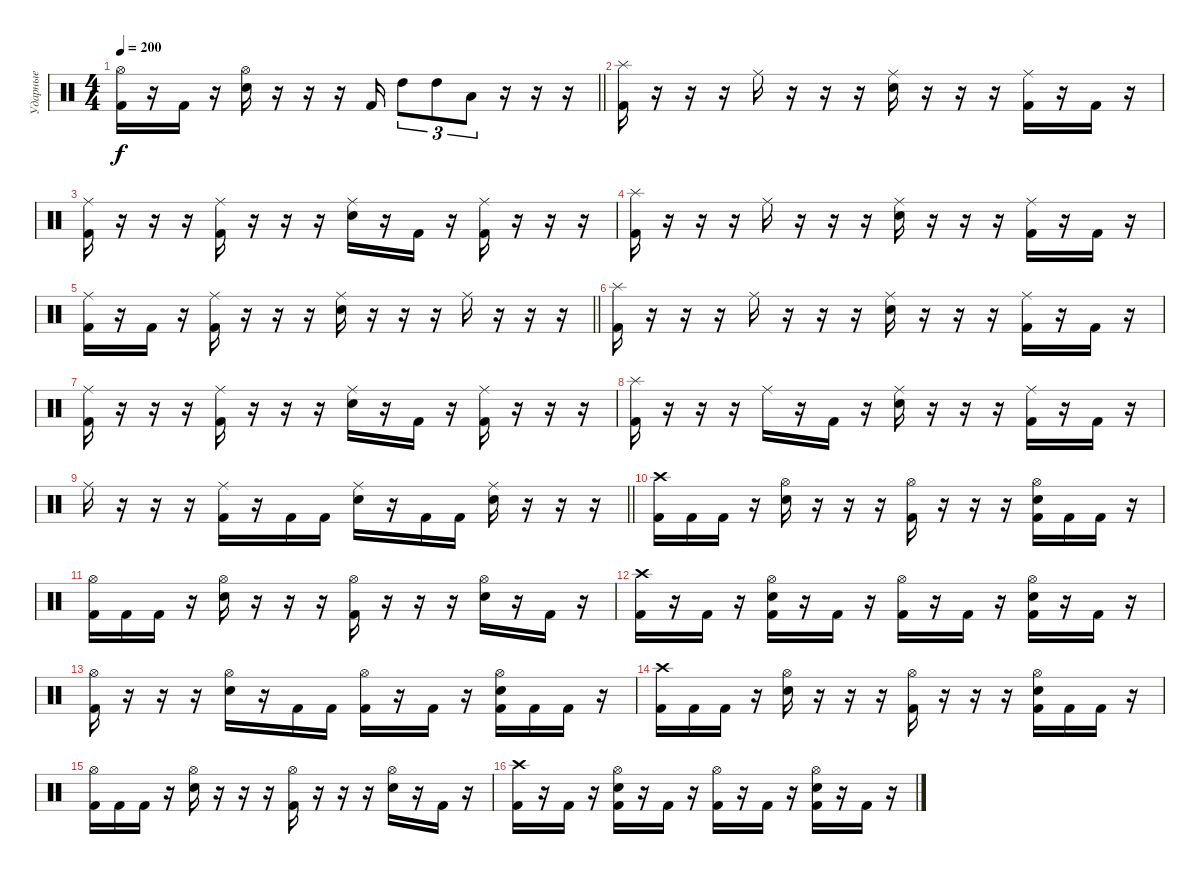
\track ("Ударные" "Ударные") {instrument percussion}
\staff {score}
\articulation defaults
\ts (4 4)
\tempo 200
\clef neutral
\barLineRight lightlight
\ks c
("Hi-Hat (open)" "Kick (hit) 2").16{dy f} r.16 "Kick (hit) 2".16 r.16 ("Hi-Hat (open)" "Electric Snare (hit)").16 r.16 r.16 r.16 "Kick (hit) 2".16 "High Tom (hit)".8{tu (3 2)} "High Tom (hit)".8{tu (3 2)} "Low Tom (hit)".8{tu (3 2)} r.16 r.16 r.16 |
\section ("" "")
("Splash (hit)" "Kick (hit) 2").16 r.16 r.16 r.16 "Ride (middle)".16 r.16 r.16 r.16 ("Ride (middle)" "Electric Snare (hit)").16 r.16 r.16 r.16 ("Ride (middle)" "Kick (hit) 2").16 r.16 "Kick (hit) 2".16 r.16 |
("Ride (middle)" "Kick (hit) 2").16 r.16 r.16 r.16 ("Ride (middle)" "Kick (hit) 2").16 r.16 r.16 r.16 ("Ride (middle)" "Electric Snare (hit)").16 r.16 "Kick (hit) 2".16 r.16 ("Ride (middle)" "Kick (hit) 2").16 r.16 r.16 r.16 |
("Splash (hit)" "Kick (hit) 2").16 r.16 r.16 r.16 "Ride (middle)".16 r.16 r.16 r.16 ("Ride (middle)" "Electric Snare (hit)").16 r.16 r.16 r.16 ("Ride (middle)" "Kick (hit) 2").16 r.16 "Kick (hit) 2".16 r.16 |
\barLineRight lightlight
("Ride (middle)" "Kick (hit) 2").16 r.16 "Kick (hit) 2".16 r.16 ("Ride (middle)" "Kick (hit) 2").16 r.16 r.16 r.16 ("Ride (middle)" "Electric Snare (hit)").16 r.16 r.16 r.16 "Ride (middle)".16 r.16 r.16 r.16 |
("Splash (hit)" "Kick (hit) 2").16 r.16 r.16 r.16 "Ride (middle)".16 r.16 r.16 r.16 ("Ride (middle)" "Electric Snare (hit)").16 r.16 r.16 r.16 ("Ride (middle)" "Kick (hit) 2").16 r.16 "Kick (hit) 2".16 r.16 |
("Ride (middle)" "Kick (hit) 2").16 r.16 r.16 r.16 ("Ride (middle)" "Kick (hit) 2").16 r.16 r.16 r.16 ("Ride (middle)" "Electric Snare (hit)").16 r.16 "Kick (hit) 2".16 r.16 ("Ride (middle)" "Kick (hit) 2").16 r.16 r.16 r.16 |
("Splash (hit)" "Kick (hit) 2").16 r.16 r.16 r.16 "Ride (middle)".16 r.16 "Kick (hit) 2".16 r.16 ("Ride (middle)" "Electric Snare (hit)").16 r.16 r.16 r.16 ("Ride (middle)" "Kick (hit) 2").16 r.16 "Kick (hit) 2".16 r.16 |
\barLineRight lightlight "Ride (middle)".16
r.16 r.16 r.16 ("Ride (middle)" "Kick (hit) 2").16 r.16 "Kick (hit) 2".16 "Kick (hit) 2".16 ("Ride (middle)" "Electric Snare (hit)").16 r.16 "Kick (hit) 2".16 "Kick (hit) 2".16 ("Ride (middle)" "Electric Snare (hit)").16 r.16 r.16 r.16 |
\section ("" "")
("Crash high (hit)" "Kick (hit) 2").16 "Kick (hit) 2".16 "Kick (hit) 2".16 r.16 ("Hi-Hat (open)" "Electric Snare (hit)").16 r.16 r.16 r.16 ("Hi-Hat (open)" "Kick (hit) 2").16 r.16 r.16 r.16 ("Hi-Hat (open)" "Electric Snare (hit)" "Kick (hit) 2").16 "Kick (hit) 2".16 "Kick (hit) 2".16 r.16 |
("Hi-Hat (open)" "Kick (hit) 2").16 "Kick (hit) 2".16 "Kick (hit) 2".16 r.16 ("Hi-Hat (open)" "Electric Snare (hit)").16 r.16 r.16 r.16 ("Hi-Hat (open)" "Kick (hit) 2").16 r.16 r.16 r.16 ("Hi-Hat (open)" "Electric Snare (hit)").16 r.16 "Kick (hit) 2".16 r.16 |
("Crash high (hit)" "Kick (hit) 2").16 r.16 "Kick (hit) 2".16 r.16 ("Hi-Hat (open)" "Electric Snare (hit)" "Kick (hit) 2").16 r.16 "Kick (hit) 2".16 r.16 ("Hi-Hat (open)" "Kick (hit) 2").16 r.16 "Kick (hit) 2".16 r.16 ("Hi-Hat (open)" "Electric Snare (hit)" "Kick (hit) 2").16 r.16 "Kick (hit) 2".16 r.16 |
("Hi-Hat (open)" "Kick (hit) 2").16 r.16 r.16 r.16 ("Hi-Hat (open)" "Electric Snare (hit)").16 r.16 "Kick (hit) 2".16 "Kick (hit) 2".16 ("Hi-Hat (open)" "Kick (hit) 2").16 r.16 "Kick (hit) 2".16 r.16 ("Hi-Hat (open)" "Electric Snare (hit)" "Kick (hit) 2").16 "Kick (hit) 2".16 "Kick (hit) 2".16 r.16 |
("Crash high (hit)" "Kick (hit) 2").16 "Kick (hit) 2".16 "Kick (hit) 2".16 r.16 ("Hi-Hat (open)" "Electric Snare (hit)").16 r.16 r.16 r.16 ("Hi-Hat (open)" "Kick (hit) 2").16 r.16 r.16 r.16 ("Hi-Hat (open)" "Electric Snare (hit)" "Kick (hit) 2").16 "Kick (hit) 2".16 "Kick (hit) 2".16 r.16 |
("Hi-Hat (open)" "Kick (hit) 2").16 "Kick (hit) 2".16 "Kick (hit) 2".16 r.16 ("Hi-Hat (open)" "Electric Snare (hit)").16 r.16 r.16 r.16 ("Hi-Hat (open)" "Kick (hit) 2").16 r.16 r.16 r.16 ("Hi-Hat (open)" "Electric Snare (hit)").16 r.16 "Kick (hit) 2".16 r.16 |
("Crash high (hit)" "Kick (hit) 2").16 r.16 "Kick (hit) 2".16 r.16 ("Hi-Hat (open)" "Electric Snare (hit)" "Kick (hit) 2").16 r.16 "Kick (hit) 2".16 r.16 ("Hi-Hat (open)" "Kick (hit) 2").16 r.16 "Kick (hit) 2".16 r.16 ("Hi-Hat (open)" "Electric Snare (hit)" "Kick (hit) 2").16 r.16 "Kick (hit) 2".16 r.16
